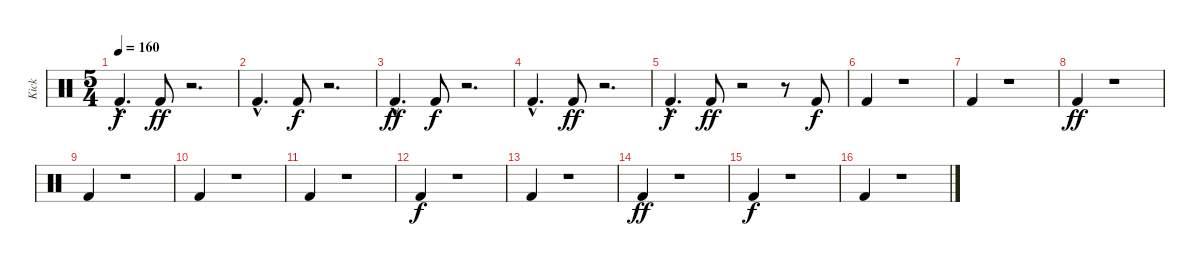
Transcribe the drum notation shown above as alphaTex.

\track ("Kick" "Kick") {instrument percussion}
\staff {score}
\articulation defaults
\ts (5 4)
\tempo 160
\clef neutral
\ks c "Kick (hit) 2"{hac}.4{d dy f} "Kick (hit) 2".8{dy ff}
r.2{d} |
"Kick (hit) 2"{hac}.4{d} "Kick (hit) 2".8{dy f} r.2{d} |
"Kick (hit) 2"{hac}.4{d dy ff} "Kick (hit) 2".8{dy f} r.2{d} |
"Kick (hit) 2"{hac}.4{d} "Kick (hit) 2".8{dy ff} r.2{d} |
"Kick (hit) 2"{hac}.4{d dy f} "Kick (hit) 2".8{dy ff} r.2 r.8 "Kick (hit) 2".8{dy f} |
"Kick (hit) 2".4 r.1 |
"Kick (hit) 2".4 r.1 |
"Kick (hit) 2".4{dy ff} r.1 |
"Kick (hit) 2".4 r.1 |
"Kick (hit) 2".4 r.1 |
"Kick (hit) 2".4 r.1 |
"Kick (hit) 2".4{dy f} r.1 |
"Kick (hit) 2".4 r.1 |
"Kick (hit) 2".4{dy ff} r.1 |
"Kick (hit) 2".4{dy f} r.1 |
"Kick (hit) 2".4 r.1
